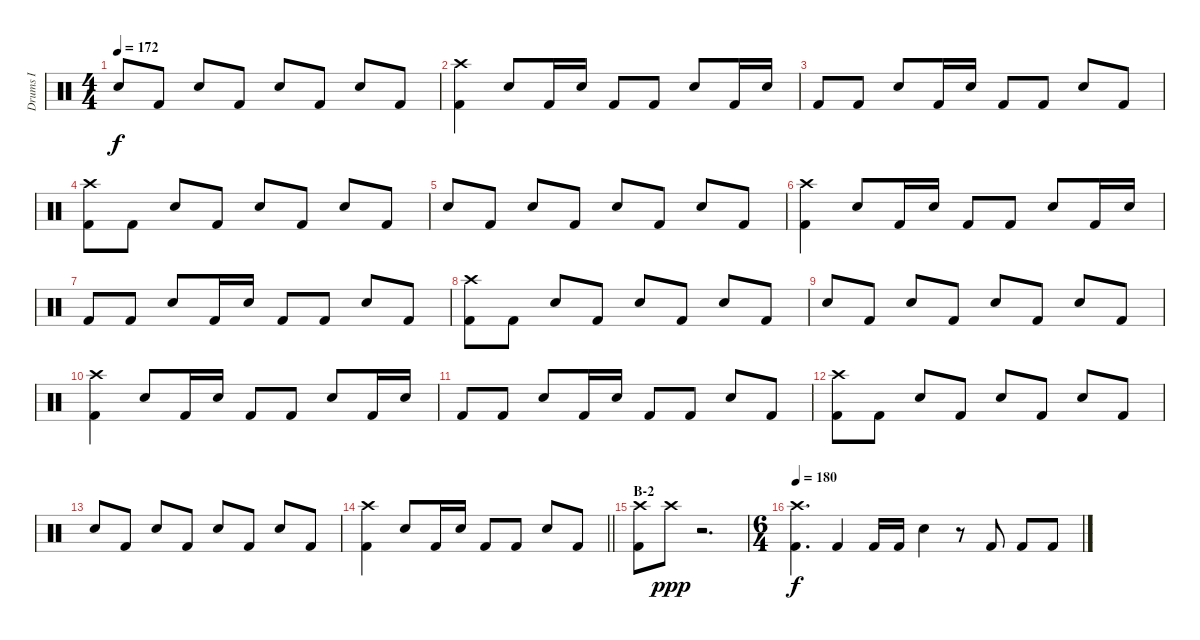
\track ("Drums I" "Drums I") {instrument percussion}
\staff {score}
\articulation defaults
\ts (4 4)
\tempo 172
\clef neutral
\ks c "Electric Snare (hit)".8{dy f} "Kick (hit) 2".8 "Electric Snare (hit)".8 "Kick (hit) 2".8 "Electric Snare (hit)".8 "Kick (hit) 2".8 "Electric Snare (hit)".8 "Kick (hit) 2".8
|
("Crash high (hit)" "Kick (hit) 2").4 "Electric Snare (hit)".8 "Kick (hit) 2".16 "Electric Snare (hit)".16 "Kick (hit) 2".8 "Kick (hit) 2".8 "Electric Snare (hit)".8 "Kick (hit) 2".16 "Electric Snare (hit)".16 |
"Kick (hit) 2".8 "Kick (hit) 2".8 "Electric Snare (hit)".8 "Kick (hit) 2".16 "Electric Snare (hit)".16 "Kick (hit) 2".8 "Kick (hit) 2".8 "Electric Snare (hit)".8 "Kick (hit) 2".8 |
("Crash high (hit)" "Kick (hit) 2").8 "Kick (hit) 2".8 "Electric Snare (hit)".8 "Kick (hit) 2".8 "Electric Snare (hit)".8 "Kick (hit) 2".8 "Electric Snare (hit)".8 "Kick (hit) 2".8 |
"Electric Snare (hit)".8 "Kick (hit) 2".8 "Electric Snare (hit)".8 "Kick (hit) 2".8 "Electric Snare (hit)".8 "Kick (hit) 2".8 "Electric Snare (hit)".8 "Kick (hit) 2".8 |
("Crash high (hit)" "Kick (hit) 2").4 "Electric Snare (hit)".8 "Kick (hit) 2".16 "Electric Snare (hit)".16 "Kick (hit) 2".8 "Kick (hit) 2".8 "Electric Snare (hit)".8 "Kick (hit) 2".16 "Electric Snare (hit)".16 |
"Kick (hit) 2".8 "Kick (hit) 2".8 "Electric Snare (hit)".8 "Kick (hit) 2".16 "Electric Snare (hit)".16 "Kick (hit) 2".8 "Kick (hit) 2".8 "Electric Snare (hit)".8 "Kick (hit) 2".8 |
("Crash high (hit)" "Kick (hit) 2").8 "Kick (hit) 2".8 "Electric Snare (hit)".8 "Kick (hit) 2".8 "Electric Snare (hit)".8 "Kick (hit) 2".8 "Electric Snare (hit)".8 "Kick (hit) 2".8 |
"Electric Snare (hit)".8 "Kick (hit) 2".8 "Electric Snare (hit)".8 "Kick (hit) 2".8 "Electric Snare (hit)".8 "Kick (hit) 2".8 "Electric Snare (hit)".8 "Kick (hit) 2".8 |
("Crash high (hit)" "Kick (hit) 2").4 "Electric Snare (hit)".8 "Kick (hit) 2".16 "Electric Snare (hit)".16 "Kick (hit) 2".8 "Kick (hit) 2".8 "Electric Snare (hit)".8 "Kick (hit) 2".16 "Electric Snare (hit)".16 |
"Kick (hit) 2".8 "Kick (hit) 2".8 "Electric Snare (hit)".8 "Kick (hit) 2".16 "Electric Snare (hit)".16 "Kick (hit) 2".8 "Kick (hit) 2".8 "Electric Snare (hit)".8 "Kick (hit) 2".8 |
("Crash high (hit)" "Kick (hit) 2").8 "Kick (hit) 2".8 "Electric Snare (hit)".8 "Kick (hit) 2".8 "Electric Snare (hit)".8 "Kick (hit) 2".8 "Electric Snare (hit)".8 "Kick (hit) 2".8 |
"Electric Snare (hit)".8 "Kick (hit) 2".8 "Electric Snare (hit)".8 "Kick (hit) 2".8 "Electric Snare (hit)".8 "Kick (hit) 2".8 "Electric Snare (hit)".8 "Kick (hit) 2".8 |
\barLineRight lightlight
("Crash high (hit)" "Kick (hit) 2").4 "Electric Snare (hit)".8 "Kick (hit) 2".16 "Electric Snare (hit)".16 "Kick (hit) 2".8 "Kick (hit) 2".8 "Electric Snare (hit)".8 "Kick (hit) 2".8 |
\section ("" "B-2")
("Crash high (hit)" "Kick (hit) 2").8 "Crash high (hit)".8{dy ppp} r.2{d} |
\ts (6 4)
\tempo 180
("Crash high (hit)" "Kick (hit) 2").4{d dy f} "Kick (hit) 2".4 "Kick (hit) 2".16 "Kick (hit) 2".16 "Electric Snare (hit)".4 r.8 "Kick (hit) 2".8 "Kick (hit) 2".8 "Kick (hit) 2".8
